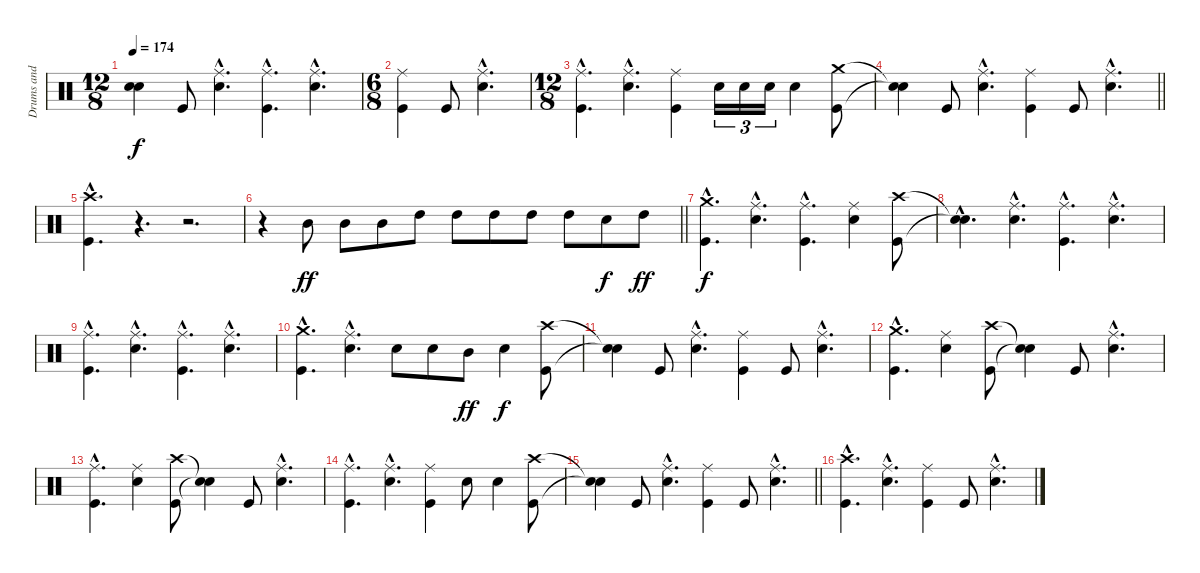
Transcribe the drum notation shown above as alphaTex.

\track ("Drums and percussion" "Drums and ") {instrument percussion}
\staff {score}
\articulation defaults
\ts (12 8)
\tempo 174
\clef neutral
\ks c
("Snare (hit)"{t} "Snare (hit)"{t}).4{dy f} "Kick (hit)".8 ("Ride (middle)"{hac} "Snare (hit) 2"{hac}).4{d} ("Ride (middle)"{hac} "Kick (hit)"{hac}).4{d} ("Ride (middle)"{hac} "Snare (hit) 2"{hac}).4{d} |
\ts (6 8)
("Ride (middle)" "Kick (hit)").4 "Kick (hit)".8 ("Ride (middle)"{hac} "Snare (hit) 2"{hac}).4{d} |
\ts (12 8)
("Ride (middle)"{hac} "Kick (hit)"{hac}).4{d} ("Ride (middle)"{hac} "Snare (hit) 2"{hac}).4{d} ("Ride (middle)" "Kick (hit)").4 "Snare (hit) 2".16{tu (3 2)} "Snare (hit) 2".16{tu (3 2)} "Snare (hit) 2".16{tu (3 2)} "Snare (hit) 2".4 ("Crash medium (hit)" "Kick (hit)").8 |
\barLineRight lightlight
("Snare (hit)"{t} "Snare (hit)"{t}).4 "Kick (hit)".8 ("Ride (middle)"{hac} "Snare (hit) 2"{hac}).4{d} ("Ride (middle)" "Kick (hit)").4 "Kick (hit)".8 ("Ride (middle)"{hac} "Snare (hit) 2"{hac}).4{d} |
("Crash high (hit)"{hac} "Kick (hit)"{hac}).4{d} r.4{d} r.2{d} |
\barLineRight lightlight
r.4 "Mid Tom (hit)".8{dy ff} "Mid Tom (hit)".8 "Mid Tom (hit)".8 "High Tom (hit)".8 "High Tom (hit)".8 "High Tom (hit)".8 "High Tom (hit)".8 "High Tom (hit)".8 "Snare (hit) 2".8{dy f} "High Tom (hit)".8{dy ff} |
("Crash medium (hit)"{hac} "Kick (hit)"{hac}).4{d dy f} ("Ride (middle)"{hac} "Snare (hit) 2"{hac}).4{d} ("Ride (middle)"{hac} "Kick (hit)"{hac}).4{d} ("Ride (middle)" "Snare (hit) 2").4 ("Crash high (hit)" "Kick (hit)").8 |
("Snare (hit)"{hac t} "Snare (hit)"{hac t}).4{d} ("Ride (middle)"{hac} "Snare (hit) 2"{hac}).4{d} ("Ride (middle)"{hac} "Kick (hit)"{hac}).4{d} ("Ride (middle)"{hac} "Snare (hit) 2"{hac}).4{d} |
("Ride (middle)"{hac} "Kick (hit)"{hac}).4{d} ("Ride (middle)"{hac} "Snare (hit) 2"{hac}).4{d} ("Ride (middle)"{hac} "Kick (hit)"{hac}).4{d} ("Ride (middle)"{hac} "Snare (hit) 2"{hac}).4{d} |
("Crash medium (hit)"{hac} "Kick (hit)"{hac}).4{d} ("Ride (middle)"{hac} "Snare (hit) 2"{hac}).4{d} "Snare (hit) 2".8 "Snare (hit) 2".8 "Mid Tom (hit)".8{dy ff} "Snare (hit) 2".4{dy f} ("Crash high (hit)" "Kick (hit)").8 |
("Snare (hit)"{t} "Snare (hit)"{t}).4 "Kick (hit)".8 ("Ride (middle)"{hac} "Snare (hit) 2"{hac}).4{d} ("Ride (middle)" "Kick (hit)").4 "Kick (hit)".8 ("Ride (middle)"{hac} "Snare (hit) 2"{hac}).4{d} |
("Crash medium (hit)"{hac} "Kick (hit)"{hac}).4{d} ("Ride (middle)" "Snare (hit) 2").4 ("Crash high (hit)" "Kick (hit)").8 ("Snare (hit)"{t} "Snare (hit)"{t}).4 "Kick (hit)".8 ("Ride (middle)"{hac} "Snare (hit) 2"{hac}).4{d} |
("Ride (middle)"{hac} "Kick (hit)"{hac}).4{d} ("Ride (middle)" "Snare (hit) 2").4 ("Crash high (hit)" "Kick (hit)").8 ("Snare (hit)"{t} "Snare (hit)"{t}).4 "Kick (hit)".8 ("Ride (middle)"{hac} "Snare (hit) 2"{hac}).4{d} |
("Ride (middle)"{hac} "Kick (hit)"{hac}).4{d} ("Ride (middle)"{hac} "Snare (hit) 2"{hac}).4{d} ("Ride (middle)" "Kick (hit)").4 "Snare (hit) 2".8 "Snare (hit) 2".4 ("Crash high (hit)" "Kick (hit)").8 |
\barLineRight lightlight
("Snare (hit)"{t} "Snare (hit)"{t}).4 "Kick (hit)".8 ("Ride (middle)"{hac} "Snare (hit) 2"{hac}).4{d} ("Ride (middle)" "Kick (hit)").4 "Kick (hit)".8 ("Ride (middle)"{hac} "Snare (hit) 2"{hac}).4{d} |
("Crash high (hit)"{hac} "Kick (hit)"{hac}).4{d} ("Ride (middle)"{hac} "Snare (hit) 2"{hac}).4{d} ("Ride (middle)" "Kick (hit)").4 "Kick (hit)".8 ("Ride (middle)"{hac} "Snare (hit) 2"{hac}).4{d}
